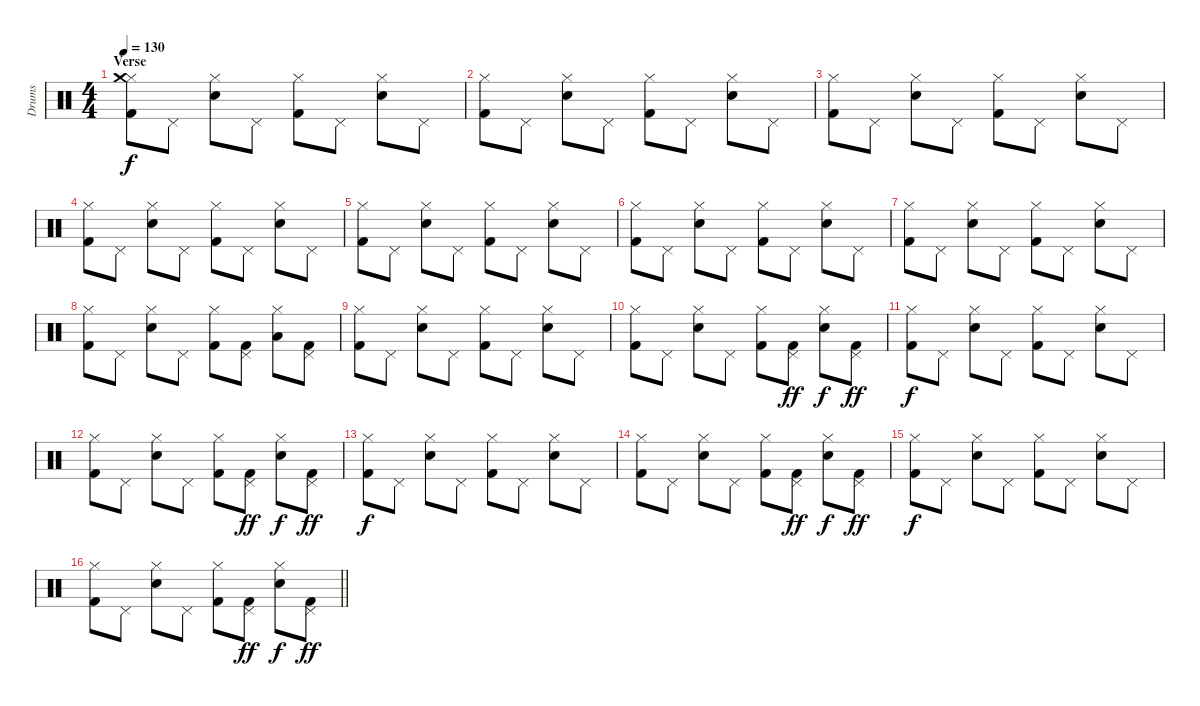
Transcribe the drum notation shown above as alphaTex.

\track ("Drums" "Drums") {instrument percussion}
\staff {score}
\articulation defaults
\ts (4 4)
\section ("" "Verse")
\tempo 130
\clef neutral
\ks c
("Kick (hit) 2" "Hi-Hat (closed)" "Crash medium (hit)").8{dy f} "Pedal Hi-Hat (hit)".8 ("Electric Snare (hit)" "Hi-Hat (closed)").8 "Pedal Hi-Hat (hit)".8 ("Kick (hit) 2" "Hi-Hat (closed)").8 "Pedal Hi-Hat (hit)".8 ("Electric Snare (hit)" "Hi-Hat (closed)").8 "Pedal Hi-Hat (hit)".8 |
("Kick (hit) 2" "Hi-Hat (closed)").8 "Pedal Hi-Hat (hit)".8 ("Electric Snare (hit)" "Hi-Hat (closed)").8 "Pedal Hi-Hat (hit)".8 ("Kick (hit) 2" "Hi-Hat (closed)").8 "Pedal Hi-Hat (hit)".8 ("Electric Snare (hit)" "Hi-Hat (closed)").8 "Pedal Hi-Hat (hit)".8 |
("Kick (hit) 2" "Hi-Hat (closed)").8 "Pedal Hi-Hat (hit)".8 ("Electric Snare (hit)" "Hi-Hat (closed)").8 "Pedal Hi-Hat (hit)".8 ("Kick (hit) 2" "Hi-Hat (closed)").8 "Pedal Hi-Hat (hit)".8 ("Electric Snare (hit)" "Hi-Hat (closed)").8 "Pedal Hi-Hat (hit)".8 |
("Kick (hit) 2" "Hi-Hat (closed)").8 "Pedal Hi-Hat (hit)".8 ("Electric Snare (hit)" "Hi-Hat (closed)").8 "Pedal Hi-Hat (hit)".8 ("Kick (hit) 2" "Hi-Hat (closed)").8 "Pedal Hi-Hat (hit)".8 ("Electric Snare (hit)" "Hi-Hat (closed)").8 "Pedal Hi-Hat (hit)".8 |
("Kick (hit) 2" "Hi-Hat (closed)").8 "Pedal Hi-Hat (hit)".8 ("Electric Snare (hit)" "Hi-Hat (closed)").8 "Pedal Hi-Hat (hit)".8 ("Kick (hit) 2" "Hi-Hat (closed)").8 "Pedal Hi-Hat (hit)".8 ("Electric Snare (hit)" "Hi-Hat (closed)").8 "Pedal Hi-Hat (hit)".8 |
("Kick (hit) 2" "Hi-Hat (closed)").8 "Pedal Hi-Hat (hit)".8 ("Electric Snare (hit)" "Hi-Hat (closed)").8 "Pedal Hi-Hat (hit)".8 ("Kick (hit) 2" "Hi-Hat (closed)").8 "Pedal Hi-Hat (hit)".8 ("Electric Snare (hit)" "Hi-Hat (closed)").8 "Pedal Hi-Hat (hit)".8 |
("Kick (hit) 2" "Hi-Hat (closed)").8 "Pedal Hi-Hat (hit)".8 ("Electric Snare (hit)" "Hi-Hat (closed)").8 "Pedal Hi-Hat (hit)".8 ("Kick (hit) 2" "Hi-Hat (closed)").8 "Pedal Hi-Hat (hit)".8 ("Electric Snare (hit)" "Hi-Hat (closed)").8 "Pedal Hi-Hat (hit)".8 |
("Kick (hit) 2" "Hi-Hat (closed)").8 "Pedal Hi-Hat (hit)".8 ("Electric Snare (hit)" "Hi-Hat (closed)").8 "Pedal Hi-Hat (hit)".8 ("Kick (hit) 2" "Hi-Hat (closed)").8 ("Kick (hit) 2" "Pedal Hi-Hat (hit)").8 ("Low Floor Tom (hit)" "Hi-Hat (closed)").8 ("Kick (hit) 2" "Pedal Hi-Hat (hit)").8 |
("Kick (hit) 2" "Hi-Hat (closed)").8 "Pedal Hi-Hat (hit)".8 ("Electric Snare (hit)" "Hi-Hat (closed)").8 "Pedal Hi-Hat (hit)".8 ("Kick (hit) 2" "Hi-Hat (closed)").8 "Pedal Hi-Hat (hit)".8 ("Electric Snare (hit)" "Hi-Hat (closed)").8 "Pedal Hi-Hat (hit)".8 |
("Kick (hit) 2" "Hi-Hat (closed)").8 "Pedal Hi-Hat (hit)".8 ("Electric Snare (hit)" "Hi-Hat (closed)").8 "Pedal Hi-Hat (hit)".8 ("Kick (hit) 2" "Hi-Hat (closed)").8 ("Kick (hit) 2" "Pedal Hi-Hat (hit)").8{dy ff} ("Electric Snare (hit)" "Hi-Hat (closed)").8{dy f} ("Kick (hit) 2" "Pedal Hi-Hat (hit)").8{dy ff} |
("Kick (hit) 2" "Hi-Hat (closed)").8{dy f} "Pedal Hi-Hat (hit)".8 ("Electric Snare (hit)" "Hi-Hat (closed)").8 "Pedal Hi-Hat (hit)".8 ("Kick (hit) 2" "Hi-Hat (closed)").8 "Pedal Hi-Hat (hit)".8 ("Electric Snare (hit)" "Hi-Hat (closed)").8 "Pedal Hi-Hat (hit)".8 |
("Kick (hit) 2" "Hi-Hat (closed)").8 "Pedal Hi-Hat (hit)".8 ("Electric Snare (hit)" "Hi-Hat (closed)").8 "Pedal Hi-Hat (hit)".8 ("Kick (hit) 2" "Hi-Hat (closed)").8 ("Kick (hit) 2" "Pedal Hi-Hat (hit)").8{dy ff} ("Electric Snare (hit)" "Hi-Hat (closed)").8{dy f} ("Kick (hit) 2" "Pedal Hi-Hat (hit)").8{dy ff} |
("Kick (hit) 2" "Hi-Hat (closed)").8{dy f} "Pedal Hi-Hat (hit)".8 ("Electric Snare (hit)" "Hi-Hat (closed)").8 "Pedal Hi-Hat (hit)".8 ("Kick (hit) 2" "Hi-Hat (closed)").8 "Pedal Hi-Hat (hit)".8 ("Electric Snare (hit)" "Hi-Hat (closed)").8 "Pedal Hi-Hat (hit)".8 |
("Kick (hit) 2" "Hi-Hat (closed)").8 "Pedal Hi-Hat (hit)".8 ("Electric Snare (hit)" "Hi-Hat (closed)").8 "Pedal Hi-Hat (hit)".8 ("Kick (hit) 2" "Hi-Hat (closed)").8 ("Kick (hit) 2" "Pedal Hi-Hat (hit)").8{dy ff} ("Electric Snare (hit)" "Hi-Hat (closed)").8{dy f} ("Kick (hit) 2" "Pedal Hi-Hat (hit)").8{dy ff} |
("Kick (hit) 2" "Hi-Hat (closed)").8{dy f} "Pedal Hi-Hat (hit)".8 ("Electric Snare (hit)" "Hi-Hat (closed)").8 "Pedal Hi-Hat (hit)".8 ("Kick (hit) 2" "Hi-Hat (closed)").8 "Pedal Hi-Hat (hit)".8 ("Electric Snare (hit)" "Hi-Hat (closed)").8 "Pedal Hi-Hat (hit)".8 |
\barLineRight lightlight
("Kick (hit) 2" "Hi-Hat (closed)").8 "Pedal Hi-Hat (hit)".8 ("Electric Snare (hit)" "Hi-Hat (closed)").8 "Pedal Hi-Hat (hit)".8 ("Kick (hit) 2" "Hi-Hat (closed)").8 ("Kick (hit) 2" "Pedal Hi-Hat (hit)").8{dy ff} ("Electric Snare (hit)" "Hi-Hat (closed)").8{dy f} ("Kick (hit) 2" "Pedal Hi-Hat (hit)").8{dy ff}
